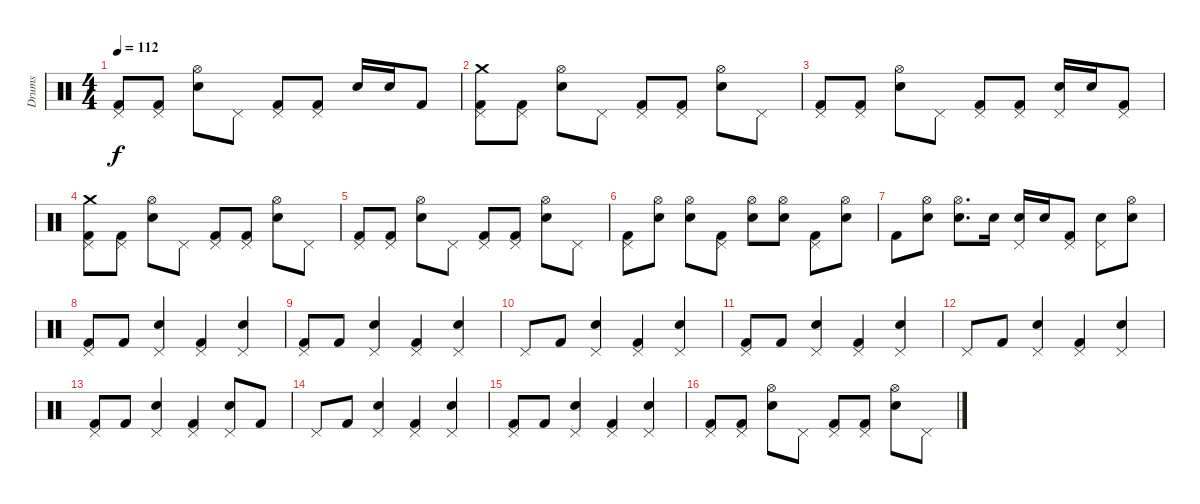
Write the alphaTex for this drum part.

\track ("Drums" "Drums") {instrument percussion}
\staff {score}
\articulation defaults
\ts (4 4)
\tempo 112
\clef neutral
\ks c
("Pedal Hi-Hat (hit)" "Kick (hit) 2").8{dy f} ("Pedal Hi-Hat (hit)" "Kick (hit) 2").8 ("Snare (hit) 2" "Hi-Hat (open)").8 "Pedal Hi-Hat (hit)".8 ("Pedal Hi-Hat (hit)" "Kick (hit) 2").8 ("Pedal Hi-Hat (hit)" "Kick (hit) 2").8 "Snare (hit) 2".16 "Snare (hit) 2".16 "Kick (hit) 2".8 |
("Pedal Hi-Hat (hit)" "Crash medium (hit)" "Kick (hit) 2").8 ("Pedal Hi-Hat (hit)" "Kick (hit) 2").8 ("Hi-Hat (open)" "Snare (hit) 2").8 "Pedal Hi-Hat (hit)".8 ("Pedal Hi-Hat (hit)" "Kick (hit) 2").8 ("Pedal Hi-Hat (hit)" "Kick (hit) 2").8 ("Hi-Hat (open)" "Snare (hit) 2").8 "Pedal Hi-Hat (hit)".8 |
("Pedal Hi-Hat (hit)" "Kick (hit) 2").8 ("Pedal Hi-Hat (hit)" "Kick (hit) 2").8 ("Hi-Hat (open)" "Snare (hit) 2").8 "Pedal Hi-Hat (hit)".8 ("Pedal Hi-Hat (hit)" "Kick (hit) 2").8 ("Pedal Hi-Hat (hit)" "Kick (hit) 2").8 ("Pedal Hi-Hat (hit)" "Snare (hit) 2").16 "Snare (hit) 2".16 ("Pedal Hi-Hat (hit)" "Kick (hit) 2").8 |
("Pedal Hi-Hat (hit)" "Crash medium (hit)" "Kick (hit) 2").8 ("Pedal Hi-Hat (hit)" "Kick (hit) 2").8 ("Hi-Hat (open)" "Snare (hit) 2").8 "Pedal Hi-Hat (hit)".8 ("Pedal Hi-Hat (hit)" "Kick (hit) 2").8 ("Pedal Hi-Hat (hit)" "Kick (hit) 2").8 ("Hi-Hat (open)" "Snare (hit) 2").8 "Pedal Hi-Hat (hit)".8 |
("Pedal Hi-Hat (hit)" "Kick (hit) 2").8 ("Pedal Hi-Hat (hit)" "Kick (hit) 2").8 ("Hi-Hat (open)" "Snare (hit) 2").8 "Pedal Hi-Hat (hit)".8 ("Pedal Hi-Hat (hit)" "Kick (hit) 2").8 ("Pedal Hi-Hat (hit)" "Kick (hit) 2").8 ("Hi-Hat (open)" "Snare (hit) 2").8 "Pedal Hi-Hat (hit)".8 |
("Pedal Hi-Hat (hit)" "Kick (hit) 2").8 ("Hi-Hat (open)" "Snare (hit) 2").8 ("Hi-Hat (open)" "Snare (hit) 2").8 ("Kick (hit) 2" "Pedal Hi-Hat (hit)").8 ("Hi-Hat (open)" "Snare (hit) 2").8 ("Hi-Hat (open)" "Snare (hit) 2").8 ("Pedal Hi-Hat (hit)" "Kick (hit) 2").8 ("Hi-Hat (open)" "Snare (hit) 2").8 |
"Kick (hit) 2".8 ("Hi-Hat (open)" "Snare (hit) 2").8 ("Hi-Hat (open)" "Snare (hit) 2").8{d} "Snare (hit) 2".16 ("Pedal Hi-Hat (hit)" "Snare (hit) 2").16 "Snare (hit) 2".16 ("Pedal Hi-Hat (hit)" "Kick (hit) 2").8 ("Pedal Hi-Hat (hit)" "Snare (hit) 2").8 ("Hi-Hat (open)" "Snare (hit) 2").8 |
("Pedal Hi-Hat (hit)" "Kick (hit) 2").8 "Kick (hit) 2".8 ("Pedal Hi-Hat (hit)" "Snare (hit) 2").4 ("Pedal Hi-Hat (hit)" "Kick (hit) 2").4 ("Pedal Hi-Hat (hit)" "Snare (hit) 2").4 |
("Pedal Hi-Hat (hit)" "Kick (hit) 2").8 "Kick (hit) 2".8 ("Pedal Hi-Hat (hit)" "Snare (hit) 2").4 ("Pedal Hi-Hat (hit)" "Kick (hit) 2").4 ("Pedal Hi-Hat (hit)" "Snare (hit) 2").4 |
"Pedal Hi-Hat (hit)".8 "Kick (hit) 2".8 ("Pedal Hi-Hat (hit)" "Snare (hit) 2").4 ("Pedal Hi-Hat (hit)" "Kick (hit) 2").4 ("Pedal Hi-Hat (hit)" "Snare (hit) 2").4 |
("Pedal Hi-Hat (hit)" "Kick (hit) 2").8 "Kick (hit) 2".8 ("Pedal Hi-Hat (hit)" "Snare (hit) 2").4 ("Pedal Hi-Hat (hit)" "Kick (hit) 2").4 ("Pedal Hi-Hat (hit)" "Snare (hit) 2").4 |
"Pedal Hi-Hat (hit)".8 "Kick (hit) 2".8 ("Pedal Hi-Hat (hit)" "Snare (hit) 2").4 ("Pedal Hi-Hat (hit)" "Kick (hit) 2").4 ("Pedal Hi-Hat (hit)" "Snare (hit) 2").4 |
("Pedal Hi-Hat (hit)" "Kick (hit) 2").8 "Kick (hit) 2".8 ("Pedal Hi-Hat (hit)" "Snare (hit) 2").4 ("Pedal Hi-Hat (hit)" "Kick (hit) 2").4 ("Pedal Hi-Hat (hit)" "Snare (hit) 2").8 "Kick (hit) 2".8 |
"Pedal Hi-Hat (hit)".8 "Kick (hit) 2".8 ("Pedal Hi-Hat (hit)" "Snare (hit) 2").4 ("Pedal Hi-Hat (hit)" "Kick (hit) 2").4 ("Pedal Hi-Hat (hit)" "Snare (hit) 2").4 |
("Pedal Hi-Hat (hit)" "Kick (hit) 2").8 "Kick (hit) 2".8 ("Pedal Hi-Hat (hit)" "Snare (hit) 2").4 ("Pedal Hi-Hat (hit)" "Kick (hit) 2").4 ("Pedal Hi-Hat (hit)" "Snare (hit) 2").4 |
("Pedal Hi-Hat (hit)" "Kick (hit) 2").8 ("Pedal Hi-Hat (hit)" "Kick (hit) 2").8 ("Hi-Hat (open)" "Snare (hit) 2").8 "Pedal Hi-Hat (hit)".8 ("Pedal Hi-Hat (hit)" "Kick (hit) 2").8 ("Pedal Hi-Hat (hit)" "Kick (hit) 2").8 ("Hi-Hat (open)" "Snare (hit) 2").8 "Pedal Hi-Hat (hit)".8
